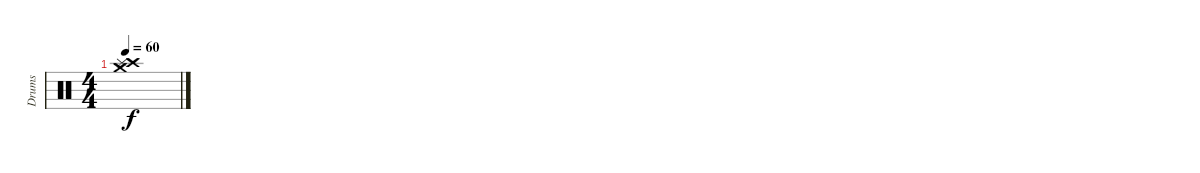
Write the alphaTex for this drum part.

\track ("Drums" "Drums") {instrument percussion}
\staff {score}
\articulation defaults
\ts (4 4)
\tempo 60
\clef neutral
\ks c
("Crash medium (hit)" "Crash high (hit)" "Splash (hit)").1{dy f}
